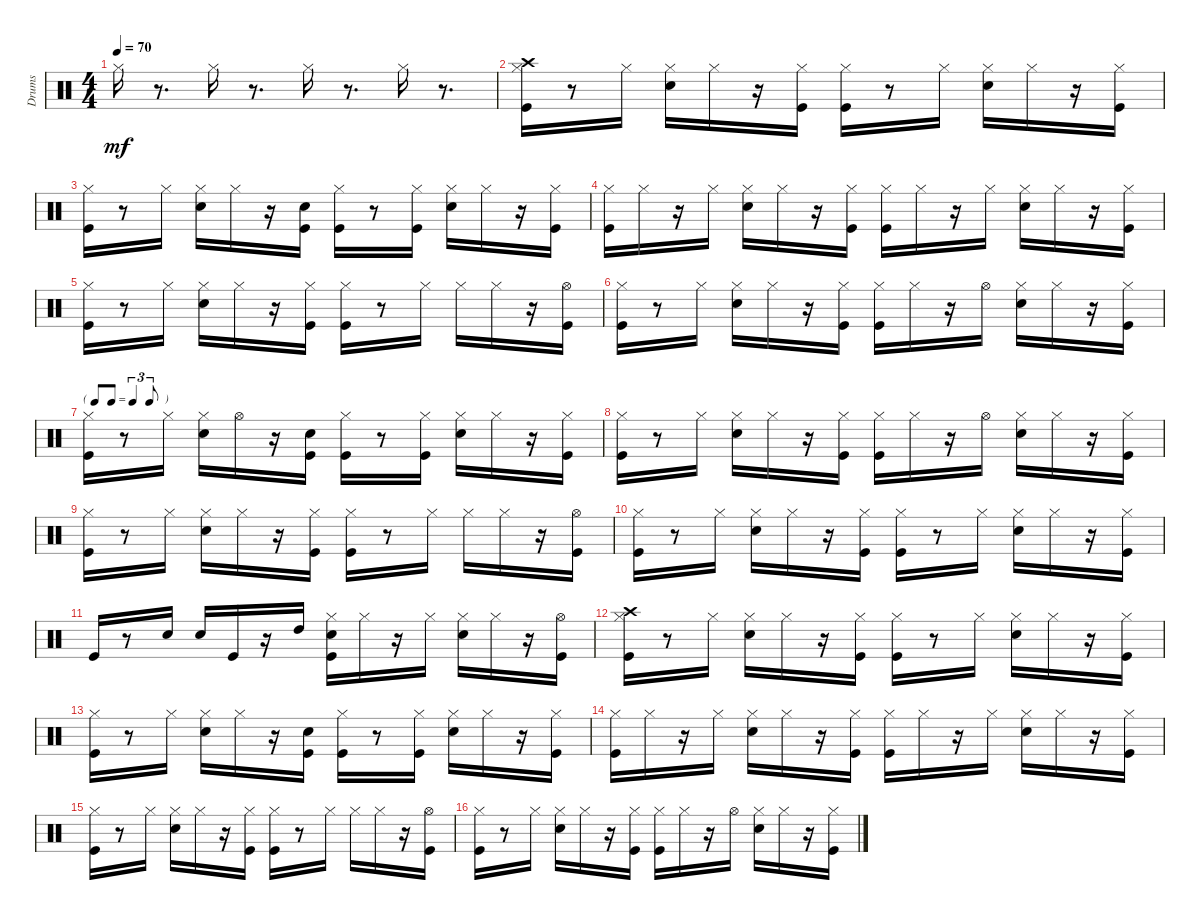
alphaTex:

\track ("Drums" "Drums") {instrument percussion}
\staff {score}
\articulation defaults
\ts (4 4)
\tempo 70
\clef neutral
\ks c "Hi-Hat (closed)".16{dy mf}
r.8{d} "Hi-Hat (closed)".16 r.8{d} "Hi-Hat (closed)".16 r.8{d} "Hi-Hat (closed)".16 r.8{d} |
("Kick (hit)" "Hi-Hat (closed)" "Crash high (hit)").16 r.8 "Hi-Hat (closed)".16 ("Snare (hit) 2" "Hi-Hat (closed)").16 "Hi-Hat (closed)".16 r.16 ("Kick (hit)" "Hi-Hat (closed)").16 ("Kick (hit)" "Hi-Hat (closed)").16 r.8 "Hi-Hat (closed)".16 ("Snare (hit) 2" "Hi-Hat (closed)").16 "Hi-Hat (closed)".16 r.16 ("Kick (hit)" "Hi-Hat (closed)").16 |
("Kick (hit)" "Hi-Hat (closed)").16 r.8 "Hi-Hat (closed)".16 ("Snare (hit) 2" "Hi-Hat (closed)").16 "Hi-Hat (closed)".16 r.16 ("Kick (hit)" "Snare (hit) 2").16 ("Kick (hit)" "Hi-Hat (closed)").16 r.8 ("Kick (hit)" "Hi-Hat (closed)").16 ("Snare (hit) 2" "Hi-Hat (closed)").16 "Hi-Hat (closed)".16 r.16 ("Kick (hit)" "Hi-Hat (closed)").16 |
("Kick (hit)" "Hi-Hat (closed)").16 "Hi-Hat (closed)".16 r.16 "Hi-Hat (closed)".16 ("Snare (hit) 2" "Hi-Hat (closed)").16 "Hi-Hat (closed)".16 r.16 ("Kick (hit)" "Hi-Hat (closed)").16 ("Kick (hit)" "Hi-Hat (closed)").16 "Hi-Hat (closed)".16 r.16 "Hi-Hat (closed)".16 ("Snare (hit) 2" "Hi-Hat (closed)").16 "Hi-Hat (closed)".16 r.16 ("Kick (hit)" "Hi-Hat (closed)").16 |
("Kick (hit)" "Hi-Hat (closed)").16 r.8 "Hi-Hat (closed)".16 ("Snare (hit) 2" "Hi-Hat (closed)").16 "Hi-Hat (closed)".16 r.16 ("Kick (hit)" "Hi-Hat (closed)").16 ("Kick (hit)" "Hi-Hat (closed)").16 r.8 "Hi-Hat (closed)".16 "Hi-Hat (closed)".16 "Hi-Hat (closed)".16 r.16 ("Kick (hit)" "Hi-Hat (open)").16 |
("Kick (hit)" "Hi-Hat (closed)").16 r.8 "Hi-Hat (closed)".16 ("Snare (hit) 2" "Hi-Hat (closed)").16 "Hi-Hat (closed)".16 r.16 ("Kick (hit)" "Hi-Hat (closed)").16 ("Kick (hit)" "Hi-Hat (closed)").16 "Hi-Hat (closed)".16 r.16 "Hi-Hat (open)".16 ("Snare (hit) 2" "Hi-Hat (closed)").16 "Hi-Hat (closed)".16 r.16 ("Kick (hit)" "Hi-Hat (closed)").16 |
\tf triplet8th
("Kick (hit)" "Hi-Hat (closed)").16 r.8 "Hi-Hat (closed)".16 ("Snare (hit) 2" "Hi-Hat (closed)").16 "Hi-Hat (open)".16 r.16 ("Kick (hit)" "Snare (hit) 2").16 ("Kick (hit)" "Hi-Hat (closed)").16 r.8 ("Kick (hit)" "Hi-Hat (closed)").16 ("Snare (hit) 2" "Hi-Hat (closed)").16 "Hi-Hat (closed)".16 r.16 ("Kick (hit)" "Hi-Hat (closed)").16 |
("Kick (hit)" "Hi-Hat (closed)").16 r.8 "Hi-Hat (closed)".16 ("Snare (hit) 2" "Hi-Hat (closed)").16 "Hi-Hat (closed)".16 r.16 ("Kick (hit)" "Hi-Hat (closed)").16 ("Kick (hit)" "Hi-Hat (closed)").16 "Hi-Hat (closed)".16 r.16 "Hi-Hat (open)".16 ("Snare (hit) 2" "Hi-Hat (closed)").16 "Hi-Hat (closed)".16 r.16 ("Kick (hit)" "Hi-Hat (closed)").16 |
("Kick (hit)" "Hi-Hat (closed)").16 r.8 "Hi-Hat (closed)".16 ("Snare (hit) 2" "Hi-Hat (closed)").16 "Hi-Hat (closed)".16 r.16 ("Kick (hit)" "Hi-Hat (closed)").16 ("Kick (hit)" "Hi-Hat (closed)").16 r.8 "Hi-Hat (closed)".16 "Hi-Hat (closed)".16 "Hi-Hat (closed)".16 r.16 ("Kick (hit)" "Hi-Hat (open)").16 |
("Kick (hit)" "Hi-Hat (closed)").16 r.8 "Hi-Hat (closed)".16 ("Snare (hit) 2" "Hi-Hat (closed)").16 "Hi-Hat (closed)".16 r.16 ("Kick (hit)" "Hi-Hat (closed)").16 ("Kick (hit)" "Hi-Hat (closed)").16 r.8 "Hi-Hat (closed)".16 ("Snare (hit) 2" "Hi-Hat (closed)").16 "Hi-Hat (closed)".16 r.16 ("Kick (hit)" "Hi-Hat (closed)").16 |
"Kick (hit)".16 r.8 "Snare (hit) 2".16 "Snare (hit) 2".16 "Kick (hit)".16 r.16 "High Tom (hit)".16 ("Kick (hit)" "Snare (hit) 2" "Hi-Hat (closed)").16 "Hi-Hat (closed)".16 r.16 "Hi-Hat (closed)".16 ("Snare (hit) 2" "Hi-Hat (closed)").16 "Hi-Hat (closed)".16 r.16 ("Kick (hit)" "Hi-Hat (open)").16 |
("Kick (hit)" "Hi-Hat (closed)" "Crash high (hit)").16 r.8 "Hi-Hat (closed)".16 ("Snare (hit) 2" "Hi-Hat (closed)").16 "Hi-Hat (closed)".16 r.16 ("Kick (hit)" "Hi-Hat (closed)").16 ("Kick (hit)" "Hi-Hat (closed)").16 r.8 "Hi-Hat (closed)".16 ("Snare (hit) 2" "Hi-Hat (closed)").16 "Hi-Hat (closed)".16 r.16 ("Kick (hit)" "Hi-Hat (closed)").16 |
("Kick (hit)" "Hi-Hat (closed)").16 r.8 "Hi-Hat (closed)".16 ("Snare (hit) 2" "Hi-Hat (closed)").16 "Hi-Hat (closed)".16 r.16 ("Kick (hit)" "Snare (hit) 2").16 ("Kick (hit)" "Hi-Hat (closed)").16 r.8 ("Kick (hit)" "Hi-Hat (closed)").16 ("Snare (hit) 2" "Hi-Hat (closed)").16 "Hi-Hat (closed)".16 r.16 ("Kick (hit)" "Hi-Hat (closed)").16 |
("Kick (hit)" "Hi-Hat (closed)").16 "Hi-Hat (closed)".16 r.16 "Hi-Hat (closed)".16 ("Snare (hit) 2" "Hi-Hat (closed)").16 "Hi-Hat (closed)".16 r.16 ("Kick (hit)" "Hi-Hat (closed)").16 ("Kick (hit)" "Hi-Hat (closed)").16 "Hi-Hat (closed)".16 r.16 "Hi-Hat (closed)".16 ("Snare (hit) 2" "Hi-Hat (closed)").16 "Hi-Hat (closed)".16 r.16 ("Kick (hit)" "Hi-Hat (closed)").16 |
("Kick (hit)" "Hi-Hat (closed)").16 r.8 "Hi-Hat (closed)".16 ("Snare (hit) 2" "Hi-Hat (closed)").16 "Hi-Hat (closed)".16 r.16 ("Kick (hit)" "Hi-Hat (closed)").16 ("Kick (hit)" "Hi-Hat (closed)").16 r.8 "Hi-Hat (closed)".16 "Hi-Hat (closed)".16 "Hi-Hat (closed)".16 r.16 ("Kick (hit)" "Hi-Hat (open)").16 |
("Kick (hit)" "Hi-Hat (closed)").16 r.8 "Hi-Hat (closed)".16 ("Snare (hit) 2" "Hi-Hat (closed)").16 "Hi-Hat (closed)".16 r.16 ("Kick (hit)" "Hi-Hat (closed)").16 ("Kick (hit)" "Hi-Hat (closed)").16 "Hi-Hat (closed)".16 r.16 "Hi-Hat (open)".16 ("Snare (hit) 2" "Hi-Hat (closed)").16 "Hi-Hat (closed)".16 r.16 ("Kick (hit)" "Hi-Hat (closed)").16
